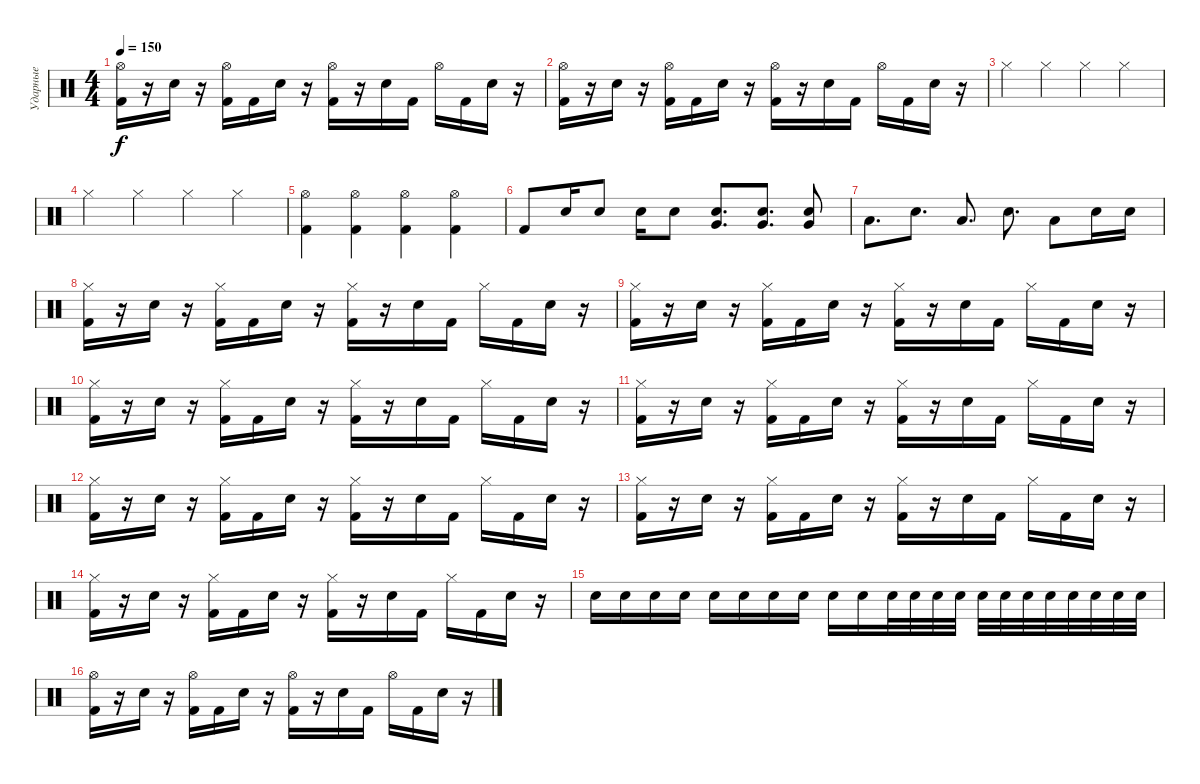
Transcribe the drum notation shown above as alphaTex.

\track ("Ударные" "Ударные") {instrument percussion}
\staff {score}
\articulation defaults
\ts (4 4)
\tempo 150
\clef neutral
\ks c
("Hi-Hat (open)" "Kick (hit) 2").16{dy f} r.16 "Electric Snare (hit)".16 r.16 ("Hi-Hat (open)" "Kick (hit) 2").16 "Kick (hit) 2".16 "Electric Snare (hit)".16 r.16 ("Hi-Hat (open)" "Kick (hit) 2").16 r.16 "Electric Snare (hit)".16 "Kick (hit) 2".16 "Hi-Hat (open)".16 "Kick (hit) 2".16 "Electric Snare (hit)".16 r.16 |
("Hi-Hat (open)" "Kick (hit) 2").16 r.16 "Electric Snare (hit)".16 r.16 ("Hi-Hat (open)" "Kick (hit) 2").16 "Kick (hit) 2".16 "Electric Snare (hit)".16 r.16 ("Hi-Hat (open)" "Kick (hit) 2").16 r.16 "Electric Snare (hit)".16 "Kick (hit) 2".16 "Hi-Hat (open)".16 "Kick (hit) 2".16 "Electric Snare (hit)".16 r.16 |
"Hi-Hat (closed)".4 "Hi-Hat (closed)".4 "Hi-Hat (closed)".4 "Hi-Hat (closed)".4 |
"Hi-Hat (closed)".4 "Hi-Hat (closed)".4 "Hi-Hat (closed)".4 "Hi-Hat (closed)".4 |
("Hi-Hat (open)" "Kick (hit) 2").4 ("Hi-Hat (open)" "Kick (hit) 2").4 ("Hi-Hat (open)" "Kick (hit) 2").4 ("Hi-Hat (open)" "Kick (hit) 2").4 |
"Kick (hit) 2".8 "Electric Snare (hit)".16 "Electric Snare (hit)".8 "Electric Snare (hit)".16 "Electric Snare (hit)".8 ("Electric Snare (hit)" "Very Low Tom (hit)").8{d} ("Electric Snare (hit)" "Very Low Tom (hit)").8{d} ("Electric Snare (hit)" "Very Low Tom (hit)").8 |
"Low Tom (hit)".8{d} "Electric Snare (hit)".8{d} "Low Tom (hit)".8{d} "Electric Snare (hit)".8{d} "Low Tom (hit)".8 "Electric Snare (hit)".16 "Electric Snare (hit)".16 |
("Hi-Hat (closed)" "Kick (hit) 2").16 r.16 "Electric Snare (hit)".16 r.16 ("Hi-Hat (closed)" "Kick (hit) 2").16 "Kick (hit) 2".16 "Electric Snare (hit)".16 r.16 ("Hi-Hat (closed)" "Kick (hit) 2").16 r.16 "Electric Snare (hit)".16 "Kick (hit) 2".16 "Hi-Hat (closed)".16 "Kick (hit) 2".16 "Electric Snare (hit)".16 r.16 |
("Hi-Hat (closed)" "Kick (hit) 2").16 r.16 "Electric Snare (hit)".16 r.16 ("Hi-Hat (closed)" "Kick (hit) 2").16 "Kick (hit) 2".16 "Electric Snare (hit)".16 r.16 ("Hi-Hat (closed)" "Kick (hit) 2").16 r.16 "Electric Snare (hit)".16 "Kick (hit) 2".16 "Hi-Hat (closed)".16 "Kick (hit) 2".16 "Electric Snare (hit)".16 r.16 |
("Hi-Hat (closed)" "Kick (hit) 2").16 r.16 "Electric Snare (hit)".16 r.16 ("Hi-Hat (closed)" "Kick (hit) 2").16 "Kick (hit) 2".16 "Electric Snare (hit)".16 r.16 ("Hi-Hat (closed)" "Kick (hit) 2").16 r.16 "Electric Snare (hit)".16 "Kick (hit) 2".16 "Hi-Hat (closed)".16 "Kick (hit) 2".16 "Electric Snare (hit)".16 r.16 |
("Hi-Hat (closed)" "Kick (hit) 2").16 r.16 "Electric Snare (hit)".16 r.16 ("Hi-Hat (closed)" "Kick (hit) 2").16 "Kick (hit) 2".16 "Electric Snare (hit)".16 r.16 ("Hi-Hat (closed)" "Kick (hit) 2").16 r.16 "Electric Snare (hit)".16 "Kick (hit) 2".16 "Hi-Hat (closed)".16 "Kick (hit) 2".16 "Electric Snare (hit)".16 r.16 |
("Hi-Hat (closed)" "Kick (hit) 2").16 r.16 "Electric Snare (hit)".16 r.16 ("Hi-Hat (closed)" "Kick (hit) 2").16 "Kick (hit) 2".16 "Electric Snare (hit)".16 r.16 ("Hi-Hat (closed)" "Kick (hit) 2").16 r.16 "Electric Snare (hit)".16 "Kick (hit) 2".16 "Hi-Hat (closed)".16 "Kick (hit) 2".16 "Electric Snare (hit)".16 r.16 |
("Hi-Hat (closed)" "Kick (hit) 2").16 r.16 "Electric Snare (hit)".16 r.16 ("Hi-Hat (closed)" "Kick (hit) 2").16 "Kick (hit) 2".16 "Electric Snare (hit)".16 r.16 ("Hi-Hat (closed)" "Kick (hit) 2").16 r.16 "Electric Snare (hit)".16 "Kick (hit) 2".16 "Hi-Hat (closed)".16 "Kick (hit) 2".16 "Electric Snare (hit)".16 r.16 |
("Hi-Hat (closed)" "Kick (hit) 2").16 r.16 "Electric Snare (hit)".16 r.16 ("Hi-Hat (closed)" "Kick (hit) 2").16 "Kick (hit) 2".16 "Electric Snare (hit)".16 r.16 ("Hi-Hat (closed)" "Kick (hit) 2").16 r.16 "Electric Snare (hit)".16 "Kick (hit) 2".16 "Hi-Hat (closed)".16 "Kick (hit) 2".16 "Electric Snare (hit)".16 r.16 |
"Electric Snare (hit)".16 "Electric Snare (hit)".16 "Electric Snare (hit)".16 "Electric Snare (hit)".16 "Electric Snare (hit)".16 "Electric Snare (hit)".16 "Electric Snare (hit)".16 "Electric Snare (hit)".16 "Electric Snare (hit)".16 "Electric Snare (hit)".16 "Electric Snare (hit)".32 "Electric Snare (hit)".32 "Electric Snare (hit)".32 "Electric Snare (hit)".32 "Electric Snare (hit)".32 "Electric Snare (hit)".32 "Electric Snare (hit)".32 "Electric Snare (hit)".32 "Electric Snare (hit)".32 "Electric Snare (hit)".32 "Electric Snare (hit)".32 "Electric Snare (hit)".32 |
("Hi-Hat (open)" "Kick (hit) 2").16 r.16 "Electric Snare (hit)".16 r.16 ("Hi-Hat (open)" "Kick (hit) 2").16 "Kick (hit) 2".16 "Electric Snare (hit)".16 r.16 ("Hi-Hat (open)" "Kick (hit) 2").16 r.16 "Electric Snare (hit)".16 "Kick (hit) 2".16 "Hi-Hat (open)".16 "Kick (hit) 2".16 "Electric Snare (hit)".16 r.16
